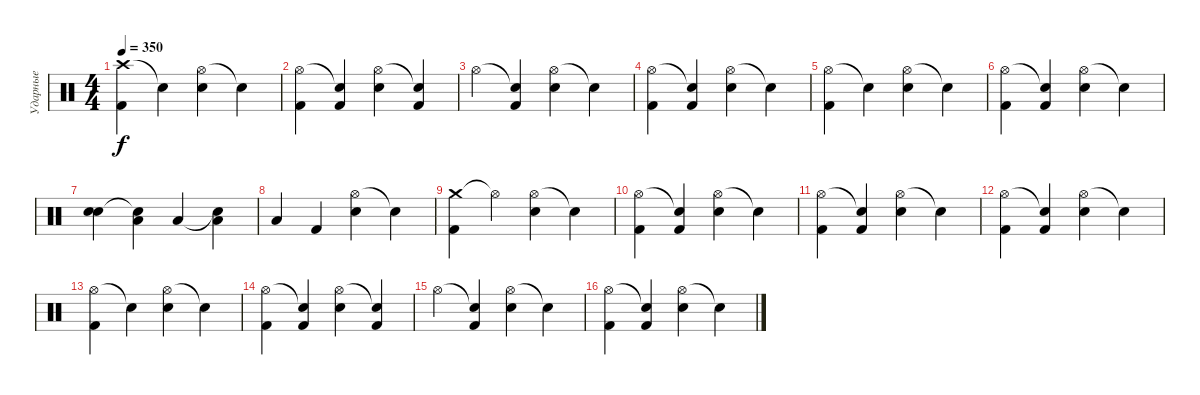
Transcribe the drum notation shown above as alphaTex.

\track ("Ударные" "Ударные") {instrument percussion}
\staff {score}
\articulation defaults
\ts (4 4)
\tempo 350
\clef neutral
\ks c
("Crash high (hit)" "Kick (hit) 2").4{dy f} "Snare (hit)"{t}.4 ("Hi-Hat (open)" "Electric Snare (hit)").4 "Snare (hit)"{t}.4 |
("Hi-Hat (open)" "Kick (hit) 2").4 ("Snare (hit)"{t} "Kick (hit) 2").4 ("Hi-Hat (open)" "Electric Snare (hit)").4 ("Snare (hit)"{t} "Kick (hit) 2").4 |
"Hi-Hat (open)".4 ("Snare (hit)"{t} "Kick (hit) 2").4 ("Hi-Hat (open)" "Electric Snare (hit)").4 "Snare (hit)"{t}.4 |
("Hi-Hat (open)" "Kick (hit) 2").4 ("Snare (hit)"{t} "Kick (hit) 2").4 ("Hi-Hat (open)" "Electric Snare (hit)").4 "Snare (hit)"{t}.4 |
("Hi-Hat (open)" "Kick (hit) 2").4 "Snare (hit)"{t}.4 ("Hi-Hat (open)" "Electric Snare (hit)").4 "Snare (hit)"{t}.4 |
("Hi-Hat (open)" "Kick (hit) 2").4 ("Snare (hit)"{t} "Kick (hit) 2").4 ("Hi-Hat (open)" "Electric Snare (hit)").4 "Snare (hit)"{t}.4 |
("Electric Snare (hit)" "Electric Snare (hit)").4 ("Snare (hit)"{t} "Low Tom (hit)").4 "Low Tom (hit)".4 ("Snare (hit)"{t} "Low Floor Tom (hit)").4 |
"Low Floor Tom (hit)".4 "Kick (hit) 2".4 ("Hi-Hat (open)" "Electric Snare (hit)").4 "Snare (hit)"{t}.4 |
("Crash medium (hit)" "Kick (hit) 2").4 "Hi-Hat (open)"{t}.4 ("Hi-Hat (open)" "Electric Snare (hit)").4 "Snare (hit)"{t}.4 |
("Hi-Hat (open)" "Kick (hit) 2").4 ("Snare (hit)"{t} "Kick (hit) 2").4 ("Hi-Hat (open)" "Electric Snare (hit)").4 "Snare (hit)"{t}.4 |
("Hi-Hat (open)" "Kick (hit) 2").4 ("Snare (hit)"{t} "Kick (hit) 2").4 ("Hi-Hat (open)" "Electric Snare (hit)").4 "Snare (hit)"{t}.4 |
("Hi-Hat (open)" "Kick (hit) 2").4 ("Snare (hit)"{t} "Kick (hit) 2").4 ("Hi-Hat (open)" "Electric Snare (hit)").4 "Snare (hit)"{t}.4 |
("Hi-Hat (open)" "Kick (hit) 2").4 "Snare (hit)"{t}.4 ("Hi-Hat (open)" "Electric Snare (hit)").4 "Snare (hit)"{t}.4 |
("Hi-Hat (open)" "Kick (hit) 2").4 ("Snare (hit)"{t} "Kick (hit) 2").4 ("Hi-Hat (open)" "Electric Snare (hit)").4 ("Snare (hit)"{t} "Kick (hit) 2").4 |
"Hi-Hat (open)".4 ("Snare (hit)"{t} "Kick (hit) 2").4 ("Hi-Hat (open)" "Electric Snare (hit)").4 "Snare (hit)"{t}.4 |
("Hi-Hat (open)" "Kick (hit) 2").4 ("Snare (hit)"{t} "Kick (hit) 2").4 ("Hi-Hat (open)" "Electric Snare (hit)").4 "Snare (hit)"{t}.4
